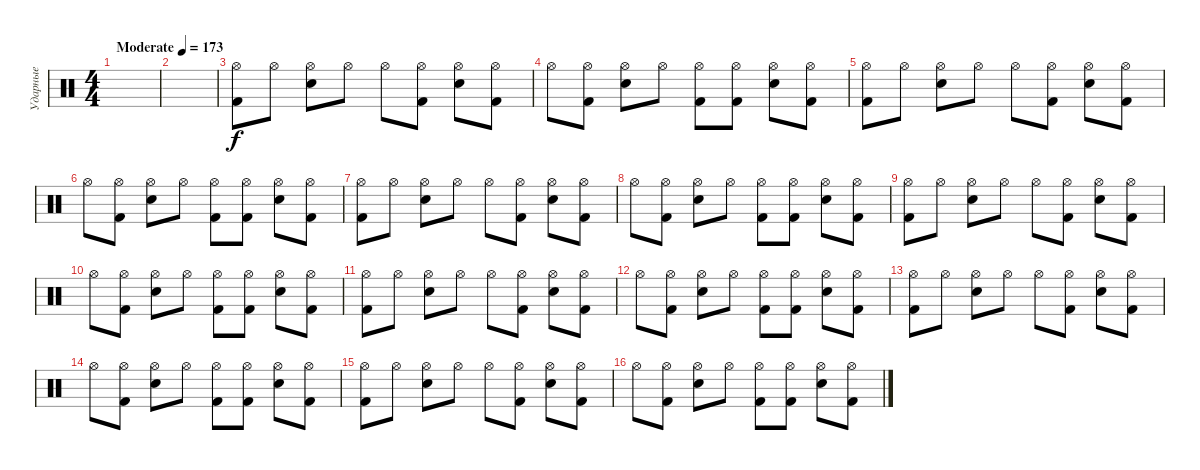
\track ("Ударные" "Ударные") {instrument percussion}
\staff {score}
\articulation defaults
\ts (4 4)
\tempo (173 "Moderate")
\clef neutral
\ks c
|
|
("Hi-Hat (open)" "Kick (hit) 2").8 "Hi-Hat (open)".8 ("Hi-Hat (open)" "Snare (hit) 2").8 "Hi-Hat (open)".8 "Hi-Hat (open)".8 ("Hi-Hat (open)" "Kick (hit) 2").8 ("Hi-Hat (open)" "Snare (hit) 2").8 ("Hi-Hat (open)" "Kick (hit) 2").8 |
"Hi-Hat (open)".8 ("Hi-Hat (open)" "Kick (hit) 2").8 ("Hi-Hat (open)" "Snare (hit) 2").8 "Hi-Hat (open)".8 ("Hi-Hat (open)" "Kick (hit) 2").8 ("Hi-Hat (open)" "Kick (hit) 2").8 ("Hi-Hat (open)" "Snare (hit) 2").8 ("Hi-Hat (open)" "Kick (hit) 2").8 |
("Hi-Hat (open)" "Kick (hit) 2").8 "Hi-Hat (open)".8 ("Hi-Hat (open)" "Snare (hit) 2").8 "Hi-Hat (open)".8 "Hi-Hat (open)".8 ("Hi-Hat (open)" "Kick (hit) 2").8 ("Hi-Hat (open)" "Snare (hit) 2").8 ("Hi-Hat (open)" "Kick (hit) 2").8 |
"Hi-Hat (open)".8 ("Hi-Hat (open)" "Kick (hit) 2").8 ("Hi-Hat (open)" "Snare (hit) 2").8 "Hi-Hat (open)".8 ("Hi-Hat (open)" "Kick (hit) 2").8 ("Hi-Hat (open)" "Kick (hit) 2").8 ("Hi-Hat (open)" "Snare (hit) 2").8 ("Hi-Hat (open)" "Kick (hit) 2").8 |
("Hi-Hat (open)" "Kick (hit) 2").8 "Hi-Hat (open)".8 ("Hi-Hat (open)" "Snare (hit) 2").8 "Hi-Hat (open)".8 "Hi-Hat (open)".8 ("Hi-Hat (open)" "Kick (hit) 2").8 ("Hi-Hat (open)" "Snare (hit) 2").8 ("Hi-Hat (open)" "Kick (hit) 2").8 |
"Hi-Hat (open)".8 ("Hi-Hat (open)" "Kick (hit) 2").8 ("Hi-Hat (open)" "Snare (hit) 2").8 "Hi-Hat (open)".8 ("Hi-Hat (open)" "Kick (hit) 2").8 ("Hi-Hat (open)" "Kick (hit) 2").8 ("Hi-Hat (open)" "Snare (hit) 2").8 ("Hi-Hat (open)" "Kick (hit) 2").8 |
("Hi-Hat (open)" "Kick (hit) 2").8 "Hi-Hat (open)".8 ("Hi-Hat (open)" "Snare (hit) 2").8 "Hi-Hat (open)".8 "Hi-Hat (open)".8 ("Hi-Hat (open)" "Kick (hit) 2").8 ("Hi-Hat (open)" "Snare (hit) 2").8 ("Hi-Hat (open)" "Kick (hit) 2").8 |
"Hi-Hat (open)".8 ("Hi-Hat (open)" "Kick (hit) 2").8 ("Hi-Hat (open)" "Snare (hit) 2").8 "Hi-Hat (open)".8 ("Hi-Hat (open)" "Kick (hit) 2").8 ("Hi-Hat (open)" "Kick (hit) 2").8 ("Hi-Hat (open)" "Snare (hit) 2").8 ("Hi-Hat (open)" "Kick (hit) 2").8 |
("Hi-Hat (open)" "Kick (hit) 2").8 "Hi-Hat (open)".8 ("Hi-Hat (open)" "Snare (hit) 2").8 "Hi-Hat (open)".8 "Hi-Hat (open)".8 ("Hi-Hat (open)" "Kick (hit) 2").8 ("Hi-Hat (open)" "Snare (hit) 2").8 ("Hi-Hat (open)" "Kick (hit) 2").8 |
"Hi-Hat (open)".8 ("Hi-Hat (open)" "Kick (hit) 2").8 ("Hi-Hat (open)" "Snare (hit) 2").8 "Hi-Hat (open)".8 ("Hi-Hat (open)" "Kick (hit) 2").8 ("Hi-Hat (open)" "Kick (hit) 2").8 ("Hi-Hat (open)" "Snare (hit) 2").8 ("Hi-Hat (open)" "Kick (hit) 2").8 |
("Hi-Hat (open)" "Kick (hit) 2").8 "Hi-Hat (open)".8 ("Hi-Hat (open)" "Snare (hit) 2").8 "Hi-Hat (open)".8 "Hi-Hat (open)".8 ("Hi-Hat (open)" "Kick (hit) 2").8 ("Hi-Hat (open)" "Snare (hit) 2").8 ("Hi-Hat (open)" "Kick (hit) 2").8 |
"Hi-Hat (open)".8 ("Hi-Hat (open)" "Kick (hit) 2").8 ("Hi-Hat (open)" "Snare (hit) 2").8 "Hi-Hat (open)".8 ("Hi-Hat (open)" "Kick (hit) 2").8 ("Hi-Hat (open)" "Kick (hit) 2").8 ("Hi-Hat (open)" "Snare (hit) 2").8 ("Hi-Hat (open)" "Kick (hit) 2").8 |
("Hi-Hat (open)" "Kick (hit) 2").8 "Hi-Hat (open)".8 ("Hi-Hat (open)" "Snare (hit) 2").8 "Hi-Hat (open)".8 "Hi-Hat (open)".8 ("Hi-Hat (open)" "Kick (hit) 2").8 ("Hi-Hat (open)" "Snare (hit) 2").8 ("Hi-Hat (open)" "Kick (hit) 2").8 |
"Hi-Hat (open)".8 ("Hi-Hat (open)" "Kick (hit) 2").8 ("Hi-Hat (open)" "Snare (hit) 2").8 "Hi-Hat (open)".8 ("Hi-Hat (open)" "Kick (hit) 2").8 ("Hi-Hat (open)" "Kick (hit) 2").8 ("Hi-Hat (open)" "Snare (hit) 2").8 ("Hi-Hat (open)" "Kick (hit) 2").8
